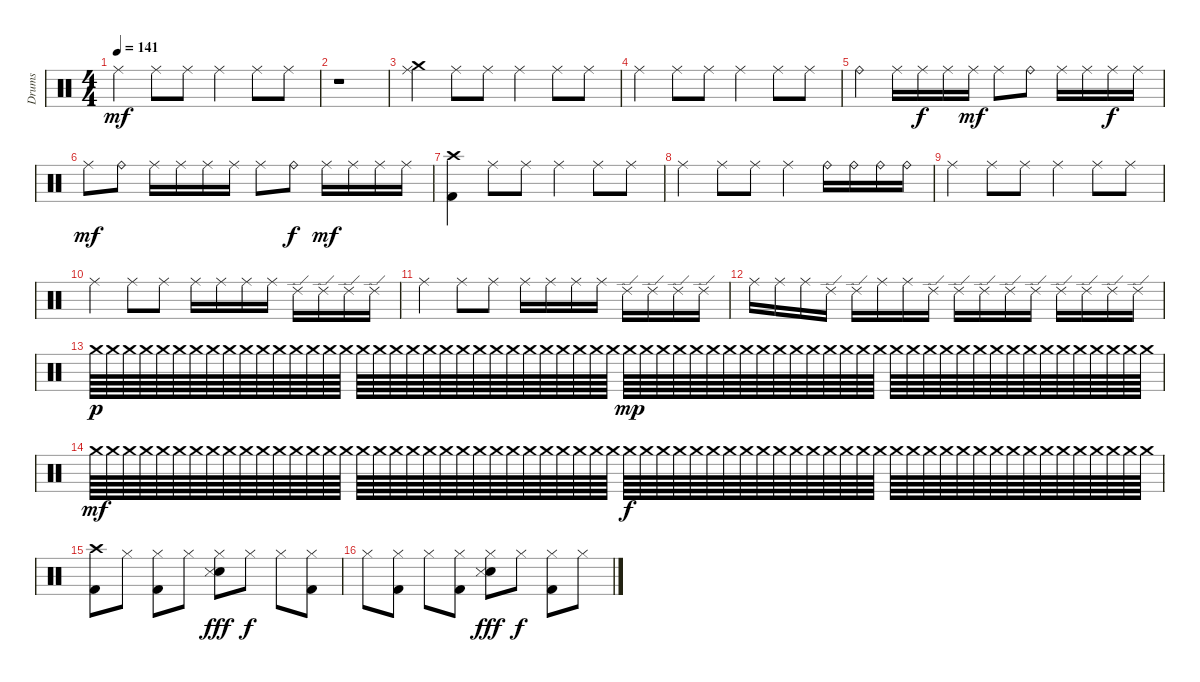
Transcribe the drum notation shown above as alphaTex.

\track ("Drums" "Drums") {instrument percussion}
\staff {score}
\articulation defaults
\ts (4 4)
\tempo 141
\clef neutral
\ks c "Ride (middle)".4{dy mf} "Ride (middle)".8 "Ride (middle)".8 "Ride (middle)".4 "Ride (middle)".8 "Ride (middle)".8
|
r.1 |
("Ride (middle)" "Crash medium (hit)").4 "Ride (middle)".8 "Ride (middle)".8 "Ride (middle)".4 "Ride (middle)".8 "Ride (middle)".8 |
"Ride (middle)".4 "Ride (middle)".8 "Ride (middle)".8 "Ride (middle)".4 "Ride (middle)".8 "Ride (middle)".8 |
"Ride (bell)".4 "Ride (middle)".16 "Ride (middle)".16{dy f} "Ride (middle)".16 "Ride (middle)".16{dy mf} "Ride (middle)".8 "Ride (bell)".8 "Ride (middle)".16 "Ride (middle)".16 "Ride (middle)".16{dy f} "Ride (middle)".16 |
"Ride (middle)".8{dy mf} "Ride (bell)".8 "Ride (middle)".16 "Ride (middle)".16 "Ride (middle)".16 "Ride (middle)".16 "Ride (middle)".8 "Ride (bell)".8{dy f} "Ride (middle)".16{dy mf} "Ride (middle)".16 "Ride (middle)".16 "Ride (middle)".16 |
("Crash high (hit)" "Kick (hit) 2").4 "Ride (middle)".8 "Ride (middle)".8 "Ride (middle)".4 "Ride (middle)".8 "Ride (middle)".8 |
"Ride (middle)".4 "Ride (middle)".8 "Ride (middle)".8 "Ride (middle)".4 "Ride (bell)".16 "Ride (bell)".16 "Ride (bell)".16 "Ride (bell)".16 |
"Ride (middle)".4 "Ride (middle)".8 "Ride (middle)".8 "Ride (middle)".4 "Ride (middle)".8 "Ride (middle)".8 |
"Ride (middle)".4 "Ride (middle)".8 "Ride (middle)".8 "Ride (middle)".16 "Ride (middle)".16 "Ride (middle)".16 "Ride (middle)".16 "Ride (edge) 2".16 "Ride (edge) 2".16 "Ride (edge) 2".16 "Ride (edge) 2".16 |
"Ride (middle)".4 "Ride (middle)".8 "Ride (middle)".8 "Ride (middle)".16 "Ride (middle)".16 "Ride (middle)".16 "Ride (middle)".16 "Ride (edge) 2".16 "Ride (edge) 2".16 "Ride (edge) 2".16 "Ride (edge) 2".16 |
"Ride (middle)".16 "Ride (middle)".16 "Ride (middle)".16 "Ride (edge) 2".16 "Ride (edge) 2".16 "Ride (middle)".16 "Ride (middle)".16 "Ride (edge) 2".16 "Ride (edge) 2".16 "Ride (edge) 2".16 "Ride (edge) 2".16 "Ride (edge) 2".16 "Ride (edge) 2".16 "Ride (edge) 2".16 "Ride (edge) 2".16 "Ride (edge) 2".16 |
"Crash medium (hit)".64{dy p} "Crash medium (hit)".64 "Crash medium (hit)".64 "Crash medium (hit)".64 "Crash medium (hit)".64 "Crash medium (hit)".64 "Crash medium (hit)".64 "Crash medium (hit)".64 "Crash medium (hit)".64 "Crash medium (hit)".64 "Crash medium (hit)".64 "Crash medium (hit)".64 "Crash medium (hit)".64 "Crash medium (hit)".64 "Crash medium (hit)".64 "Crash medium (hit)".64 "Crash medium (hit)".64 "Crash medium (hit)".64 "Crash medium (hit)".64 "Crash medium (hit)".64 "Crash medium (hit)".64 "Crash medium (hit)".64 "Crash medium (hit)".64 "Crash medium (hit)".64 "Crash medium (hit)".64 "Crash medium (hit)".64 "Crash medium (hit)".64 "Crash medium (hit)".64 "Crash medium (hit)".64 "Crash medium (hit)".64 "Crash medium (hit)".64 "Crash medium (hit)".64 "Crash medium (hit)".64{dy mp} "Crash medium (hit)".64 "Crash medium (hit)".64 "Crash medium (hit)".64 "Crash medium (hit)".64 "Crash medium (hit)".64 "Crash medium (hit)".64 "Crash medium (hit)".64 "Crash medium (hit)".64 "Crash medium (hit)".64 "Crash medium (hit)".64 "Crash medium (hit)".64 "Crash medium (hit)".64 "Crash medium (hit)".64 "Crash medium (hit)".64 "Crash medium (hit)".64 "Crash medium (hit)".64 "Crash medium (hit)".64 "Crash medium (hit)".64 "Crash medium (hit)".64 "Crash medium (hit)".64 "Crash medium (hit)".64 "Crash medium (hit)".64 "Crash medium (hit)".64 "Crash medium (hit)".64 "Crash medium (hit)".64 "Crash medium (hit)".64 "Crash medium (hit)".64 "Crash medium (hit)".64 "Crash medium (hit)".64 "Crash medium (hit)".64 "Crash medium (hit)".64 |
"Crash medium (hit)".64{dy mf} "Crash medium (hit)".64 "Crash medium (hit)".64 "Crash medium (hit)".64 "Crash medium (hit)".64 "Crash medium (hit)".64 "Crash medium (hit)".64 "Crash medium (hit)".64 "Crash medium (hit)".64 "Crash medium (hit)".64 "Crash medium (hit)".64 "Crash medium (hit)".64 "Crash medium (hit)".64 "Crash medium (hit)".64 "Crash medium (hit)".64 "Crash medium (hit)".64 "Crash medium (hit)".64 "Crash medium (hit)".64 "Crash medium (hit)".64 "Crash medium (hit)".64 "Crash medium (hit)".64 "Crash medium (hit)".64 "Crash medium (hit)".64 "Crash medium (hit)".64 "Crash medium (hit)".64 "Crash medium (hit)".64 "Crash medium (hit)".64 "Crash medium (hit)".64 "Crash medium (hit)".64 "Crash medium (hit)".64 "Crash medium (hit)".64 "Crash medium (hit)".64 "Crash medium (hit)".64{dy f} "Crash medium (hit)".64 "Crash medium (hit)".64 "Crash medium (hit)".64 "Crash medium (hit)".64 "Crash medium (hit)".64 "Crash medium (hit)".64 "Crash medium (hit)".64 "Crash medium (hit)".64 "Crash medium (hit)".64 "Crash medium (hit)".64 "Crash medium (hit)".64 "Crash medium (hit)".64 "Crash medium (hit)".64 "Crash medium (hit)".64 "Crash medium (hit)".64 "Crash medium (hit)".64 "Crash medium (hit)".64 "Crash medium (hit)".64 "Crash medium (hit)".64 "Crash medium (hit)".64 "Crash medium (hit)".64 "Crash medium (hit)".64 "Crash medium (hit)".64 "Crash medium (hit)".64 "Crash medium (hit)".64 "Crash medium (hit)".64 "Crash medium (hit)".64 "Crash medium (hit)".64 "Crash medium (hit)".64 "Crash medium (hit)".64 "Crash medium (hit)".64 |
("Crash high (hit)" "Kick (hit) 2").8 "Hi-Hat (closed)".8 ("Hi-Hat (closed)" "Kick (hit) 2").8 "Hi-Hat (closed)".8 ("Hi-Hat (closed)" "Electric Snare (hit)" "Metronome (hit)").8{dy fff} "Hi-Hat (closed)".8{dy f} "Hi-Hat (closed)".8 ("Hi-Hat (closed)" "Kick (hit) 2").8 |
"Hi-Hat (closed)".8 ("Hi-Hat (closed)" "Kick (hit) 2").8 "Hi-Hat (closed)".8 ("Hi-Hat (closed)" "Kick (hit) 2").8 ("Hi-Hat (closed)" "Electric Snare (hit)" "Metronome (hit)").8{dy fff} "Hi-Hat (closed)".8{dy f} ("Hi-Hat (closed)" "Kick (hit) 2").8 "Hi-Hat (closed)".8
